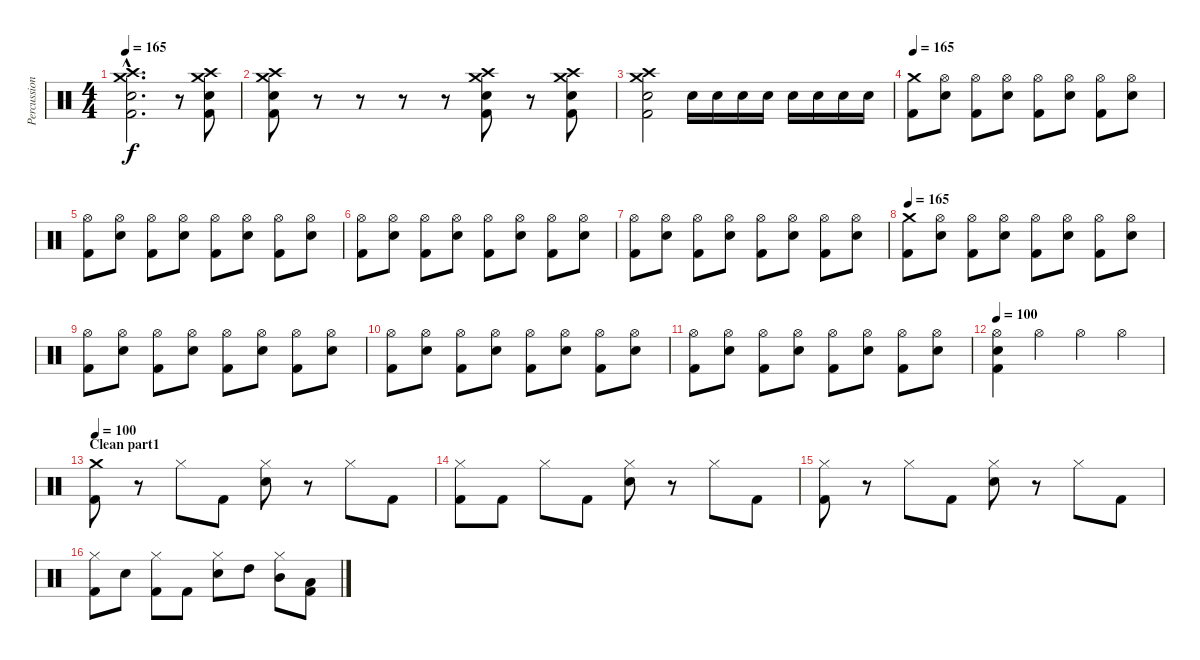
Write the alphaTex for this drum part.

\track ("Percussion" "Percussion") {instrument percussion}
\staff {score}
\articulation defaults
\ts (4 4)
\tempo 165
\clef neutral
\ks c
("Crash medium (hit)"{hac} "Crash high (hit)"{hac} "Snare (hit) 2"{hac} "Kick (hit) 2"{hac}).2{d dy f} r.8 ("Crash medium (hit)" "Crash high (hit)" "Snare (hit) 2" "Kick (hit) 2").8 |
("Crash medium (hit)" "Crash high (hit)" "Snare (hit) 2" "Kick (hit) 2").8 r.8 r.8 r.8 r.8 ("Crash medium (hit)" "Crash high (hit)" "Snare (hit) 2" "Kick (hit) 2").8 r.8 ("Crash medium (hit)" "Crash high (hit)" "Snare (hit) 2" "Kick (hit) 2").8 |
("Crash medium (hit)" "Crash high (hit)" "Snare (hit) 2" "Kick (hit) 2").2 "Snare (hit) 2".16 "Snare (hit) 2".16 "Snare (hit) 2".16 "Snare (hit) 2".16 "Snare (hit) 2".16 "Snare (hit) 2".16 "Snare (hit) 2".16 "Snare (hit) 2".16 |
\tempo 165
("Crash medium (hit)" "Kick (hit) 2").8 ("Hi-Hat (open)" "Snare (hit) 2").8 ("Hi-Hat (open)" "Kick (hit) 2").8 ("Hi-Hat (open)" "Snare (hit) 2").8 ("Hi-Hat (open)" "Kick (hit) 2").8 ("Hi-Hat (open)" "Snare (hit) 2").8 ("Hi-Hat (open)" "Kick (hit) 2").8 ("Hi-Hat (open)" "Snare (hit) 2").8 |
("Hi-Hat (open)" "Kick (hit) 2").8 ("Hi-Hat (open)" "Snare (hit) 2").8 ("Hi-Hat (open)" "Kick (hit) 2").8 ("Hi-Hat (open)" "Snare (hit) 2").8 ("Hi-Hat (open)" "Kick (hit) 2").8 ("Hi-Hat (open)" "Snare (hit) 2").8 ("Hi-Hat (open)" "Kick (hit) 2").8 ("Hi-Hat (open)" "Snare (hit) 2").8 |
("Hi-Hat (open)" "Kick (hit) 2").8 ("Hi-Hat (open)" "Snare (hit) 2").8 ("Hi-Hat (open)" "Kick (hit) 2").8 ("Hi-Hat (open)" "Snare (hit) 2").8 ("Hi-Hat (open)" "Kick (hit) 2").8 ("Hi-Hat (open)" "Snare (hit) 2").8 ("Hi-Hat (open)" "Kick (hit) 2").8 ("Hi-Hat (open)" "Snare (hit) 2").8 |
("Hi-Hat (open)" "Kick (hit) 2").8 ("Hi-Hat (open)" "Snare (hit) 2").8 ("Hi-Hat (open)" "Kick (hit) 2").8 ("Hi-Hat (open)" "Snare (hit) 2").8 ("Hi-Hat (open)" "Kick (hit) 2").8 ("Hi-Hat (open)" "Snare (hit) 2").8 ("Hi-Hat (open)" "Kick (hit) 2").8 ("Hi-Hat (open)" "Snare (hit) 2").8 |
\tempo 165
("Crash medium (hit)" "Kick (hit) 2").8 ("Hi-Hat (open)" "Snare (hit) 2").8 ("Hi-Hat (open)" "Kick (hit) 2").8 ("Hi-Hat (open)" "Snare (hit) 2").8 ("Hi-Hat (open)" "Kick (hit) 2").8 ("Hi-Hat (open)" "Snare (hit) 2").8 ("Hi-Hat (open)" "Kick (hit) 2").8 ("Hi-Hat (open)" "Snare (hit) 2").8 |
("Hi-Hat (open)" "Kick (hit) 2").8 ("Hi-Hat (open)" "Snare (hit) 2").8 ("Hi-Hat (open)" "Kick (hit) 2").8 ("Hi-Hat (open)" "Snare (hit) 2").8 ("Hi-Hat (open)" "Kick (hit) 2").8 ("Hi-Hat (open)" "Snare (hit) 2").8 ("Hi-Hat (open)" "Kick (hit) 2").8 ("Hi-Hat (open)" "Snare (hit) 2").8 |
("Hi-Hat (open)" "Kick (hit) 2").8 ("Hi-Hat (open)" "Snare (hit) 2").8 ("Hi-Hat (open)" "Kick (hit) 2").8 ("Hi-Hat (open)" "Snare (hit) 2").8 ("Hi-Hat (open)" "Kick (hit) 2").8 ("Hi-Hat (open)" "Snare (hit) 2").8 ("Hi-Hat (open)" "Kick (hit) 2").8 ("Hi-Hat (open)" "Snare (hit) 2").8 |
("Hi-Hat (open)" "Kick (hit) 2").8 ("Hi-Hat (open)" "Snare (hit) 2").8 ("Hi-Hat (open)" "Kick (hit) 2").8 ("Hi-Hat (open)" "Snare (hit) 2").8 ("Hi-Hat (open)" "Kick (hit) 2").8 ("Hi-Hat (open)" "Snare (hit) 2").8 ("Hi-Hat (open)" "Kick (hit) 2").8 ("Hi-Hat (open)" "Snare (hit) 2").8 |
\tempo 100
("Hi-Hat (open)" "Snare (hit) 2" "Kick (hit) 2").4 "Hi-Hat (open)".4 "Hi-Hat (open)".4 "Hi-Hat (open)".4 |
\section ("" "Clean part1")
\tempo 100
("Crash medium (hit)" "Kick (hit) 2").8{volume 12} r.8 "Hi-Hat (closed)".8 "Kick (hit) 2".8 ("Hi-Hat (closed)" "Snare (hit) 2").8 r.8 "Hi-Hat (closed)".8 "Kick (hit) 2".8 |
("Hi-Hat (closed)" "Kick (hit) 2").8 "Kick (hit) 2".8 "Hi-Hat (closed)".8 "Kick (hit) 2".8 ("Hi-Hat (closed)" "Snare (hit) 2").8 r.8 "Hi-Hat (closed)".8 "Kick (hit) 2".8 |
("Hi-Hat (closed)" "Kick (hit) 2").8 r.8 "Hi-Hat (closed)".8 "Kick (hit) 2".8 ("Hi-Hat (closed)" "Snare (hit) 2").8 r.8 "Hi-Hat (closed)".8 "Kick (hit) 2".8 |
("Hi-Hat (closed)" "Kick (hit) 2").8 "Snare (hit) 2".8 ("Hi-Hat (closed)" "Kick (hit) 2").8 "Kick (hit) 2".8 ("Hi-Hat (closed)" "Snare (hit) 2").8 "High Tom (hit)".8 ("Hi-Hat (closed)" "Mid Tom (hit)").8 ("Low Tom (hit)" "Kick (hit) 2").8
